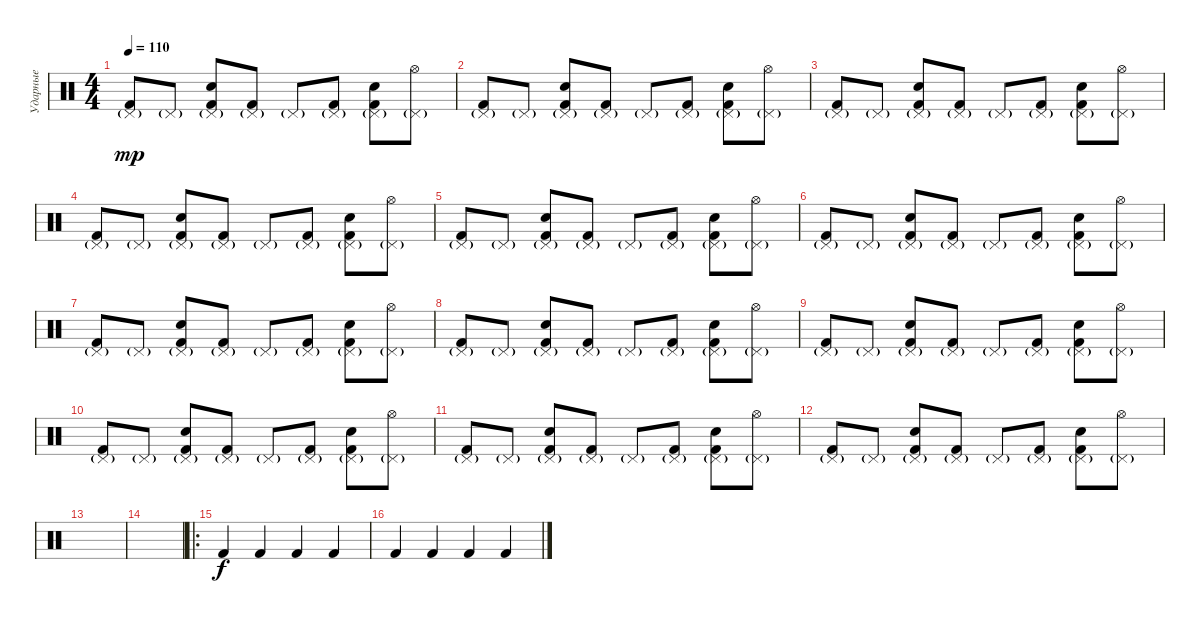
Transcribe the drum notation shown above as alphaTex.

\track ("Ударные" "Ударные") {instrument percussion}
\staff {score}
\articulation defaults
\ts (4 4)
\tempo 110
\clef neutral
\ks c
("Kick (hit) 2" "Pedal Hi-Hat (hit)"{g}).8{dy mp} "Pedal Hi-Hat (hit)"{g}.8 ("Snare (hit) 2" "Kick (hit) 2" "Pedal Hi-Hat (hit)"{g}).8 ("Kick (hit) 2" "Pedal Hi-Hat (hit)"{g}).8 "Pedal Hi-Hat (hit)"{g}.8 ("Kick (hit) 2" "Pedal Hi-Hat (hit)"{g}).8 ("Snare (hit) 2" "Kick (hit) 2" "Pedal Hi-Hat (hit)"{g}).8 ("Hi-Hat (open)" "Pedal Hi-Hat (hit)"{g}).8 |
("Kick (hit) 2" "Pedal Hi-Hat (hit)"{g}).8 "Pedal Hi-Hat (hit)"{g}.8 ("Snare (hit) 2" "Kick (hit) 2" "Pedal Hi-Hat (hit)"{g}).8 ("Kick (hit) 2" "Pedal Hi-Hat (hit)"{g}).8 "Pedal Hi-Hat (hit)"{g}.8 ("Kick (hit) 2" "Pedal Hi-Hat (hit)"{g}).8 ("Snare (hit) 2" "Kick (hit) 2" "Pedal Hi-Hat (hit)"{g}).8 ("Hi-Hat (open)" "Pedal Hi-Hat (hit)"{g}).8 |
("Kick (hit) 2" "Pedal Hi-Hat (hit)"{g}).8 "Pedal Hi-Hat (hit)"{g}.8 ("Snare (hit) 2" "Kick (hit) 2" "Pedal Hi-Hat (hit)"{g}).8 ("Kick (hit) 2" "Pedal Hi-Hat (hit)"{g}).8 "Pedal Hi-Hat (hit)"{g}.8 ("Kick (hit) 2" "Pedal Hi-Hat (hit)"{g}).8 ("Snare (hit) 2" "Kick (hit) 2" "Pedal Hi-Hat (hit)"{g}).8 ("Hi-Hat (open)" "Pedal Hi-Hat (hit)"{g}).8 |
("Kick (hit) 2" "Pedal Hi-Hat (hit)"{g}).8 "Pedal Hi-Hat (hit)"{g}.8 ("Snare (hit) 2" "Kick (hit) 2" "Pedal Hi-Hat (hit)"{g}).8 ("Kick (hit) 2" "Pedal Hi-Hat (hit)"{g}).8 "Pedal Hi-Hat (hit)"{g}.8 ("Kick (hit) 2" "Pedal Hi-Hat (hit)"{g}).8 ("Snare (hit) 2" "Kick (hit) 2" "Pedal Hi-Hat (hit)"{g}).8 ("Hi-Hat (open)" "Pedal Hi-Hat (hit)"{g}).8 |
("Kick (hit) 2" "Pedal Hi-Hat (hit)"{g}).8 "Pedal Hi-Hat (hit)"{g}.8 ("Snare (hit) 2" "Kick (hit) 2" "Pedal Hi-Hat (hit)"{g}).8 ("Kick (hit) 2" "Pedal Hi-Hat (hit)"{g}).8 "Pedal Hi-Hat (hit)"{g}.8 ("Kick (hit) 2" "Pedal Hi-Hat (hit)"{g}).8 ("Snare (hit) 2" "Kick (hit) 2" "Pedal Hi-Hat (hit)"{g}).8 ("Hi-Hat (open)" "Pedal Hi-Hat (hit)"{g}).8 |
("Kick (hit) 2" "Pedal Hi-Hat (hit)"{g}).8 "Pedal Hi-Hat (hit)"{g}.8 ("Snare (hit) 2" "Kick (hit) 2" "Pedal Hi-Hat (hit)"{g}).8 ("Kick (hit) 2" "Pedal Hi-Hat (hit)"{g}).8 "Pedal Hi-Hat (hit)"{g}.8 ("Kick (hit) 2" "Pedal Hi-Hat (hit)"{g}).8 ("Snare (hit) 2" "Kick (hit) 2" "Pedal Hi-Hat (hit)"{g}).8 ("Hi-Hat (open)" "Pedal Hi-Hat (hit)"{g}).8 |
("Kick (hit) 2" "Pedal Hi-Hat (hit)"{g}).8 "Pedal Hi-Hat (hit)"{g}.8 ("Snare (hit) 2" "Kick (hit) 2" "Pedal Hi-Hat (hit)"{g}).8 ("Kick (hit) 2" "Pedal Hi-Hat (hit)"{g}).8 "Pedal Hi-Hat (hit)"{g}.8 ("Kick (hit) 2" "Pedal Hi-Hat (hit)"{g}).8 ("Snare (hit) 2" "Kick (hit) 2" "Pedal Hi-Hat (hit)"{g}).8 ("Hi-Hat (open)" "Pedal Hi-Hat (hit)"{g}).8 |
("Kick (hit) 2" "Pedal Hi-Hat (hit)"{g}).8 "Pedal Hi-Hat (hit)"{g}.8 ("Snare (hit) 2" "Kick (hit) 2" "Pedal Hi-Hat (hit)"{g}).8 ("Kick (hit) 2" "Pedal Hi-Hat (hit)"{g}).8 "Pedal Hi-Hat (hit)"{g}.8 ("Kick (hit) 2" "Pedal Hi-Hat (hit)"{g}).8 ("Snare (hit) 2" "Kick (hit) 2" "Pedal Hi-Hat (hit)"{g}).8 ("Hi-Hat (open)" "Pedal Hi-Hat (hit)"{g}).8 |
("Kick (hit) 2" "Pedal Hi-Hat (hit)"{g}).8 "Pedal Hi-Hat (hit)"{g}.8 ("Snare (hit) 2" "Kick (hit) 2" "Pedal Hi-Hat (hit)"{g}).8 ("Kick (hit) 2" "Pedal Hi-Hat (hit)"{g}).8 "Pedal Hi-Hat (hit)"{g}.8 ("Kick (hit) 2" "Pedal Hi-Hat (hit)"{g}).8 ("Snare (hit) 2" "Kick (hit) 2" "Pedal Hi-Hat (hit)"{g}).8 ("Hi-Hat (open)" "Pedal Hi-Hat (hit)"{g}).8 |
("Kick (hit) 2" "Pedal Hi-Hat (hit)"{g}).8 "Pedal Hi-Hat (hit)"{g}.8 ("Snare (hit) 2" "Kick (hit) 2" "Pedal Hi-Hat (hit)"{g}).8 ("Kick (hit) 2" "Pedal Hi-Hat (hit)"{g}).8 "Pedal Hi-Hat (hit)"{g}.8 ("Kick (hit) 2" "Pedal Hi-Hat (hit)"{g}).8 ("Snare (hit) 2" "Kick (hit) 2" "Pedal Hi-Hat (hit)"{g}).8 ("Hi-Hat (open)" "Pedal Hi-Hat (hit)"{g}).8 |
("Kick (hit) 2" "Pedal Hi-Hat (hit)"{g}).8 "Pedal Hi-Hat (hit)"{g}.8 ("Snare (hit) 2" "Kick (hit) 2" "Pedal Hi-Hat (hit)"{g}).8 ("Kick (hit) 2" "Pedal Hi-Hat (hit)"{g}).8 "Pedal Hi-Hat (hit)"{g}.8 ("Kick (hit) 2" "Pedal Hi-Hat (hit)"{g}).8 ("Snare (hit) 2" "Kick (hit) 2" "Pedal Hi-Hat (hit)"{g}).8 ("Hi-Hat (open)" "Pedal Hi-Hat (hit)"{g}).8 |
("Kick (hit) 2" "Pedal Hi-Hat (hit)"{g}).8 "Pedal Hi-Hat (hit)"{g}.8 ("Snare (hit) 2" "Kick (hit) 2" "Pedal Hi-Hat (hit)"{g}).8 ("Kick (hit) 2" "Pedal Hi-Hat (hit)"{g}).8 "Pedal Hi-Hat (hit)"{g}.8 ("Kick (hit) 2" "Pedal Hi-Hat (hit)"{g}).8 ("Snare (hit) 2" "Kick (hit) 2" "Pedal Hi-Hat (hit)"{g}).8 ("Hi-Hat (open)" "Pedal Hi-Hat (hit)"{g}).8 |
|
|
\ro "Kick (hit) 2".4{dy f} "Kick (hit) 2".4 "Kick (hit) 2".4 "Kick (hit) 2".4
|
"Kick (hit) 2".4 "Kick (hit) 2".4 "Kick (hit) 2".4 "Kick (hit) 2".4
